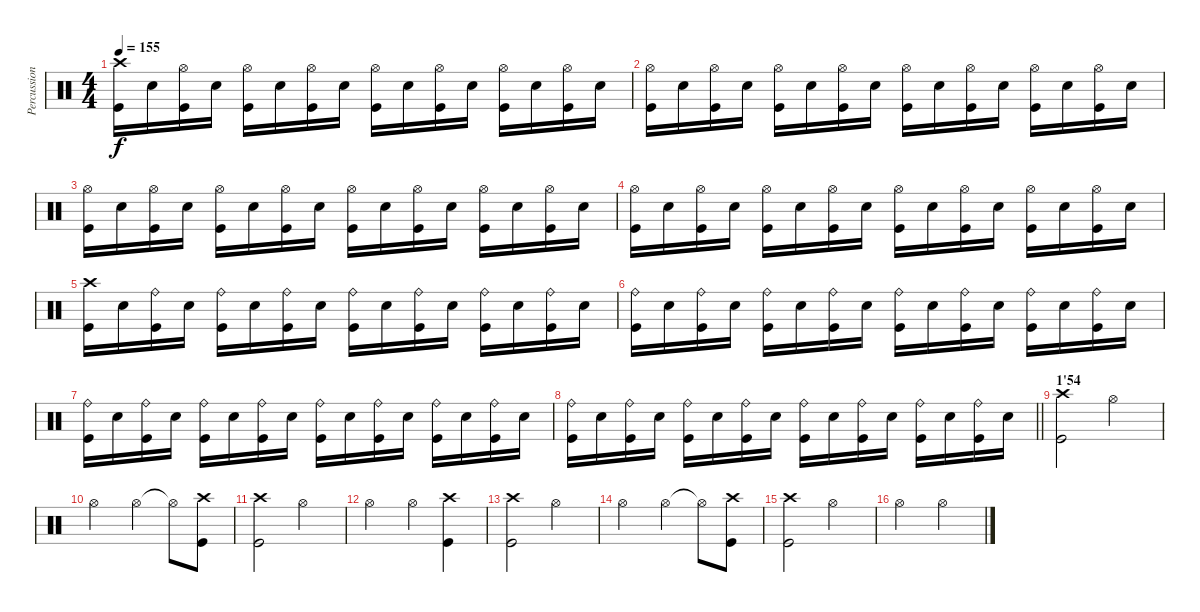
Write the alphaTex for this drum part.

\track ("Percussions" "Percussion") {instrument percussion}
\staff {score}
\articulation defaults
\ts (4 4)
\tempo 155
\clef neutral
\ks c
("Crash high (hit)" "Kick (hit)").16{dy f} "Electric Snare (hit)".16 ("Hi-Hat (open)" "Kick (hit)").16 "Electric Snare (hit)".16 ("Hi-Hat (open)" "Kick (hit)").16 "Electric Snare (hit)".16 ("Hi-Hat (open)" "Kick (hit)").16 "Electric Snare (hit)".16 ("Hi-Hat (open)" "Kick (hit)").16 "Electric Snare (hit)".16 ("Hi-Hat (open)" "Kick (hit)").16 "Electric Snare (hit)".16 ("Hi-Hat (open)" "Kick (hit)").16 "Electric Snare (hit)".16 ("Hi-Hat (open)" "Kick (hit)").16 "Electric Snare (hit)".16 |
("Hi-Hat (open)" "Kick (hit)").16 "Electric Snare (hit)".16 ("Hi-Hat (open)" "Kick (hit)").16 "Electric Snare (hit)".16 ("Hi-Hat (open)" "Kick (hit)").16 "Electric Snare (hit)".16 ("Hi-Hat (open)" "Kick (hit)").16 "Electric Snare (hit)".16 ("Hi-Hat (open)" "Kick (hit)").16 "Electric Snare (hit)".16 ("Hi-Hat (open)" "Kick (hit)").16 "Electric Snare (hit)".16 ("Hi-Hat (open)" "Kick (hit)").16 "Electric Snare (hit)".16 ("Hi-Hat (open)" "Kick (hit)").16 "Electric Snare (hit)".16 |
("Hi-Hat (open)" "Kick (hit)").16 "Electric Snare (hit)".16 ("Hi-Hat (open)" "Kick (hit)").16 "Electric Snare (hit)".16 ("Hi-Hat (open)" "Kick (hit)").16 "Electric Snare (hit)".16 ("Hi-Hat (open)" "Kick (hit)").16 "Electric Snare (hit)".16 ("Hi-Hat (open)" "Kick (hit)").16 "Electric Snare (hit)".16 ("Hi-Hat (open)" "Kick (hit)").16 "Electric Snare (hit)".16 ("Hi-Hat (open)" "Kick (hit)").16 "Electric Snare (hit)".16 ("Hi-Hat (open)" "Kick (hit)").16 "Electric Snare (hit)".16 |
("Hi-Hat (open)" "Kick (hit)").16 "Electric Snare (hit)".16 ("Hi-Hat (open)" "Kick (hit)").16 "Electric Snare (hit)".16 ("Hi-Hat (open)" "Kick (hit)").16 "Electric Snare (hit)".16 ("Hi-Hat (open)" "Kick (hit)").16 "Electric Snare (hit)".16 ("Hi-Hat (open)" "Kick (hit)").16 "Electric Snare (hit)".16 ("Hi-Hat (open)" "Kick (hit)").16 "Electric Snare (hit)".16 ("Hi-Hat (open)" "Kick (hit)").16 "Electric Snare (hit)".16 ("Hi-Hat (open)" "Kick (hit)").16 "Electric Snare (hit)".16 |
("Crash high (hit)" "Kick (hit)").16 "Electric Snare (hit)".16 ("Ride (bell)" "Kick (hit)").16 "Electric Snare (hit)".16 ("Ride (bell)" "Kick (hit)").16 "Electric Snare (hit)".16 ("Ride (bell)" "Kick (hit)").16 "Electric Snare (hit)".16 ("Ride (bell)" "Kick (hit)").16 "Electric Snare (hit)".16 ("Ride (bell)" "Kick (hit)").16 "Electric Snare (hit)".16 ("Ride (bell)" "Kick (hit)").16 "Electric Snare (hit)".16 ("Ride (bell)" "Kick (hit)").16 "Electric Snare (hit)".16 |
("Ride (bell)" "Kick (hit)").16 "Electric Snare (hit)".16 ("Ride (bell)" "Kick (hit)").16 "Electric Snare (hit)".16 ("Ride (bell)" "Kick (hit)").16 "Electric Snare (hit)".16 ("Ride (bell)" "Kick (hit)").16 "Electric Snare (hit)".16 ("Ride (bell)" "Kick (hit)").16 "Electric Snare (hit)".16 ("Ride (bell)" "Kick (hit)").16 "Electric Snare (hit)".16 ("Ride (bell)" "Kick (hit)").16 "Electric Snare (hit)".16 ("Ride (bell)" "Kick (hit)").16 "Electric Snare (hit)".16 |
("Ride (bell)" "Kick (hit)").16 "Electric Snare (hit)".16 ("Ride (bell)" "Kick (hit)").16 "Electric Snare (hit)".16 ("Ride (bell)" "Kick (hit)").16 "Electric Snare (hit)".16 ("Ride (bell)" "Kick (hit)").16 "Electric Snare (hit)".16 ("Ride (bell)" "Kick (hit)").16 "Electric Snare (hit)".16 ("Ride (bell)" "Kick (hit)").16 "Electric Snare (hit)".16 ("Ride (bell)" "Kick (hit)").16 "Electric Snare (hit)".16 ("Ride (bell)" "Kick (hit)").16 "Electric Snare (hit)".16 |
\barLineRight lightlight
("Ride (bell)" "Kick (hit)").16 "Electric Snare (hit)".16 ("Ride (bell)" "Kick (hit)").16 "Electric Snare (hit)".16 ("Ride (bell)" "Kick (hit)").16 "Electric Snare (hit)".16 ("Ride (bell)" "Kick (hit)").16 "Electric Snare (hit)".16 ("Ride (bell)" "Kick (hit)").16 "Electric Snare (hit)".16 ("Ride (bell)" "Kick (hit)").16 "Electric Snare (hit)".16 ("Ride (bell)" "Kick (hit)").16 "Electric Snare (hit)".16 ("Ride (bell)" "Kick (hit)").16 "Electric Snare (hit)".16 |
\section ("" "1'54")
("Crash high (hit)" "Kick (hit)").2 "Hi-Hat (open)".2 |
"Hi-Hat (open)".2 "Hi-Hat (open)".4 "Hi-Hat (open)"{t}.8 ("Crash high (hit)" "Kick (hit)").8 |
("Crash high (hit)" "Kick (hit)").2 "Hi-Hat (open)".2 |
"Hi-Hat (open)".2 "Hi-Hat (open)".4 ("Crash high (hit)" "Kick (hit)").4 |
("Crash high (hit)" "Kick (hit)").2 "Hi-Hat (open)".2 |
"Hi-Hat (open)".2 "Hi-Hat (open)".4 "Hi-Hat (open)"{t}.8 ("Crash high (hit)" "Kick (hit)").8 |
("Crash high (hit)" "Kick (hit)").2 "Hi-Hat (open)".2 |
"Hi-Hat (open)".2 "Hi-Hat (open)".2
